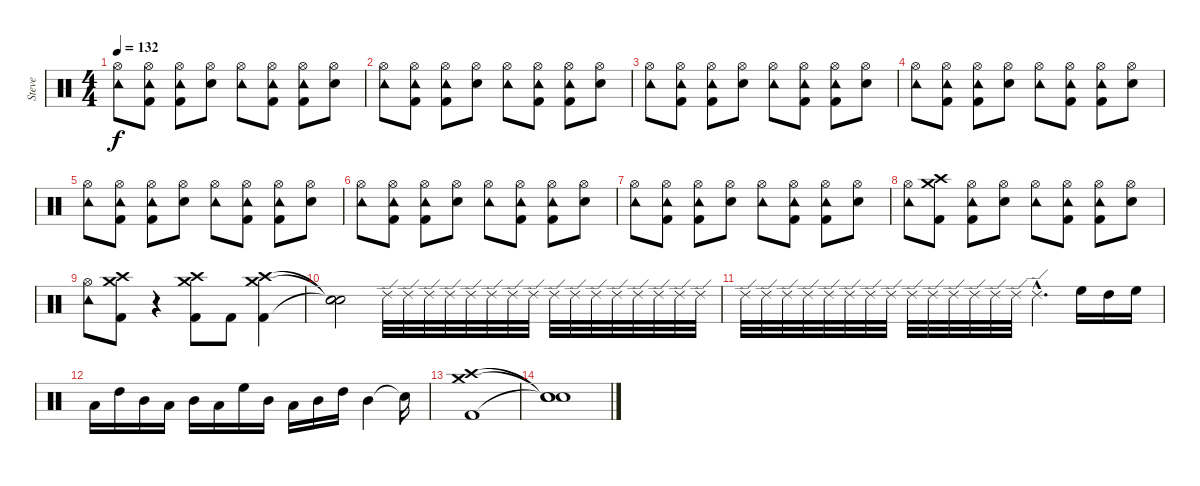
\track ("Steve" "Steve") {instrument percussion}
\staff {score}
\articulation defaults
\ts (4 4)
\tempo 132
\clef neutral
\ks c
("Hi-Hat (open)" "Tambourine (hit)").8{dy f} ("Hi-Hat (open)" "Tambourine (hit)" "Kick (hit) 2").8 ("Hi-Hat (open)" "Tambourine (hit)" "Kick (hit) 2").8 ("Hi-Hat (open)" "Snare (hit) 2").8 ("Hi-Hat (open)" "Tambourine (hit)").8 ("Hi-Hat (open)" "Tambourine (hit)" "Kick (hit) 2").8 ("Hi-Hat (open)" "Tambourine (hit)" "Kick (hit) 2").8 ("Hi-Hat (open)" "Snare (hit) 2").8 |
("Hi-Hat (open)" "Tambourine (hit)").8 ("Hi-Hat (open)" "Tambourine (hit)" "Kick (hit) 2").8 ("Hi-Hat (open)" "Tambourine (hit)" "Kick (hit) 2").8 ("Hi-Hat (open)" "Snare (hit) 2").8 ("Hi-Hat (open)" "Tambourine (hit)").8 ("Hi-Hat (open)" "Tambourine (hit)" "Kick (hit) 2").8 ("Hi-Hat (open)" "Tambourine (hit)" "Kick (hit) 2").8 ("Hi-Hat (open)" "Snare (hit) 2").8 |
("Hi-Hat (open)" "Tambourine (hit)").8 ("Hi-Hat (open)" "Tambourine (hit)" "Kick (hit) 2").8 ("Hi-Hat (open)" "Tambourine (hit)" "Kick (hit) 2").8 ("Hi-Hat (open)" "Snare (hit) 2").8 ("Hi-Hat (open)" "Tambourine (hit)").8 ("Hi-Hat (open)" "Tambourine (hit)" "Kick (hit) 2").8 ("Hi-Hat (open)" "Tambourine (hit)" "Kick (hit) 2").8 ("Hi-Hat (open)" "Snare (hit) 2").8 |
("Hi-Hat (open)" "Tambourine (hit)").8 ("Hi-Hat (open)" "Tambourine (hit)" "Kick (hit) 2").8 ("Hi-Hat (open)" "Tambourine (hit)" "Kick (hit) 2").8 ("Hi-Hat (open)" "Snare (hit) 2").8 ("Hi-Hat (open)" "Tambourine (hit)").8 ("Hi-Hat (open)" "Tambourine (hit)" "Kick (hit) 2").8 ("Hi-Hat (open)" "Tambourine (hit)" "Kick (hit) 2").8 ("Hi-Hat (open)" "Snare (hit) 2").8 |
("Hi-Hat (open)" "Tambourine (hit)").8 ("Hi-Hat (open)" "Tambourine (hit)" "Kick (hit) 2").8 ("Hi-Hat (open)" "Tambourine (hit)" "Kick (hit) 2").8 ("Hi-Hat (open)" "Snare (hit) 2").8 ("Hi-Hat (open)" "Tambourine (hit)").8 ("Hi-Hat (open)" "Tambourine (hit)" "Kick (hit) 2").8 ("Hi-Hat (open)" "Tambourine (hit)" "Kick (hit) 2").8 ("Hi-Hat (open)" "Snare (hit) 2").8 |
("Hi-Hat (open)" "Tambourine (hit)").8 ("Hi-Hat (open)" "Tambourine (hit)" "Kick (hit) 2").8 ("Hi-Hat (open)" "Tambourine (hit)" "Kick (hit) 2").8 ("Hi-Hat (open)" "Snare (hit) 2").8 ("Hi-Hat (open)" "Tambourine (hit)").8 ("Hi-Hat (open)" "Tambourine (hit)" "Kick (hit) 2").8 ("Hi-Hat (open)" "Tambourine (hit)" "Kick (hit) 2").8 ("Hi-Hat (open)" "Snare (hit) 2").8 |
("Hi-Hat (open)" "Tambourine (hit)").8 ("Hi-Hat (open)" "Tambourine (hit)" "Kick (hit) 2").8 ("Hi-Hat (open)" "Tambourine (hit)" "Kick (hit) 2").8 ("Hi-Hat (open)" "Snare (hit) 2").8 ("Hi-Hat (open)" "Tambourine (hit)").8 ("Hi-Hat (open)" "Tambourine (hit)" "Kick (hit) 2").8 ("Hi-Hat (open)" "Tambourine (hit)" "Kick (hit) 2").8 ("Hi-Hat (open)" "Snare (hit) 2").8 |
("Hi-Hat (open)" "Tambourine (hit)").8 ("Crash high (hit)" "Crash medium (hit)" "Kick (hit) 2").8 ("Hi-Hat (open)" "Tambourine (hit)" "Kick (hit) 2").8 ("Hi-Hat (open)" "Snare (hit) 2").8 ("Hi-Hat (open)" "Tambourine (hit)").8 ("Hi-Hat (open)" "Tambourine (hit)" "Kick (hit) 2").8 ("Hi-Hat (open)" "Tambourine (hit)" "Kick (hit) 2").8 ("Hi-Hat (open)" "Snare (hit) 2").8 |
("Hi-Hat (open)" "Tambourine (hit)").8 ("Crash high (hit)" "Crash medium (hit)" "Kick (hit) 2").8 r.4 ("Crash high (hit)" "Crash medium (hit)" "Kick (hit) 2").8 "Kick (hit) 2".8 ("Crash high (hit)" "Crash medium (hit)" "Kick (hit) 2").4 |
("Snare (hit)"{t} "Snare (hit)"{t} "Snare (hit)"{t}).2 "Ride (edge) 2".32 "Ride (edge) 2".32 "Ride (edge) 2".32 "Ride (edge) 2".32 "Ride (edge) 2".32 "Ride (edge) 2".32 "Ride (edge) 2".32 "Ride (edge) 2".32 "Ride (edge) 2".32 "Ride (edge) 2".32 "Ride (edge) 2".32 "Ride (edge) 2".32 "Ride (edge) 2".32 "Ride (edge) 2".32 "Ride (edge) 2".32 "Ride (edge) 2".32 |
"Ride (edge) 2".32 "Ride (edge) 2".32 "Ride (edge) 2".32 "Ride (edge) 2".32 "Ride (edge) 2".32 "Ride (edge) 2".32 "Ride (edge) 2".32 "Ride (edge) 2".32 "Ride (edge) 2".32 "Ride (edge) 2".32 "Ride (edge) 2".32 "Ride (edge) 2".32 "Ride (edge) 2".32 "Ride (edge) 2".32 "Ride (edge) 2"{hac}.4{d} "High Floor Tom (hit)".16 "High Tom (hit)".16 "High Floor Tom (hit)".16 |
"Low Tom (hit)".16 "High Tom (hit)".16 "Mid Tom (hit)".16 "Low Tom (hit)".16 "Mid Tom (hit)".16 "Low Tom (hit)".16 "High Floor Tom (hit)".16 "Mid Tom (hit)".16 "Low Tom (hit)".16 "Mid Tom (hit)".16 "High Tom (hit)".16 "Mid Tom (hit)".4 "Snare (hit)"{t}.16 |
("Crash high (hit)" "Crash medium (hit)" "Kick (hit) 2").1 |
("Snare (hit)"{t} "Snare (hit)"{t} "Snare (hit)"{t}).1
